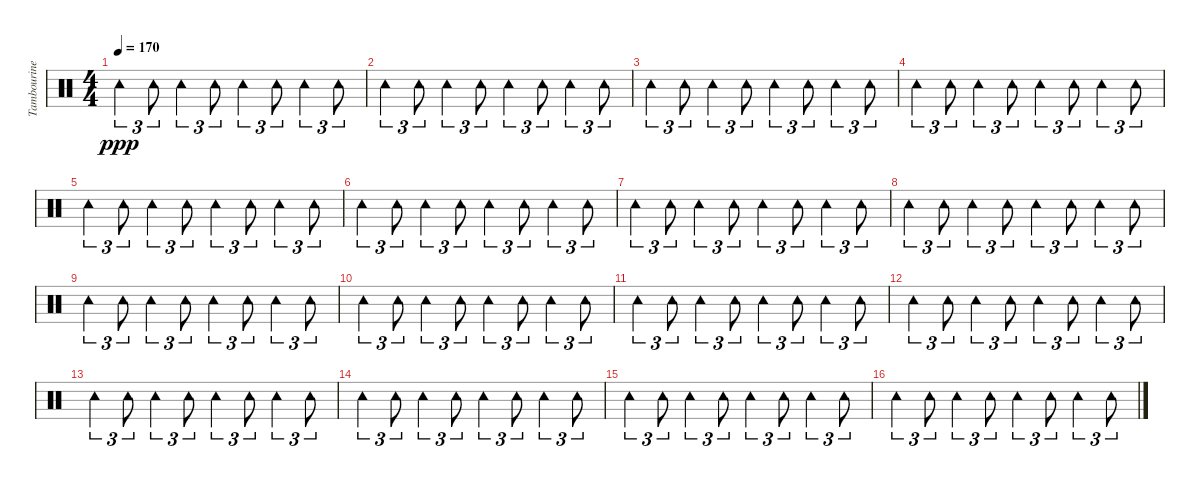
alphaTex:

\track ("Tambourine" "Tambourine") {instrument percussion}
\staff {score}
\articulation defaults
\ts (4 4)
\tempo 170
\clef neutral
\ks c "Tambourine (hit)".4{tu (3 2) dy ppp} "Tambourine (hit)".8{tu (3 2)} "Tambourine (hit)".4{tu (3 2)} "Tambourine (hit)".8{tu (3 2)} "Tambourine (hit)".4{tu (3 2)} "Tambourine (hit)".8{tu (3 2)} "Tambourine (hit)".4{tu (3 2)} "Tambourine (hit)".8{tu (3 2)}
|
"Tambourine (hit)".4{tu (3 2)} "Tambourine (hit)".8{tu (3 2)} "Tambourine (hit)".4{tu (3 2)} "Tambourine (hit)".8{tu (3 2)} "Tambourine (hit)".4{tu (3 2)} "Tambourine (hit)".8{tu (3 2)} "Tambourine (hit)".4{tu (3 2)} "Tambourine (hit)".8{tu (3 2)} |
"Tambourine (hit)".4{tu (3 2)} "Tambourine (hit)".8{tu (3 2)} "Tambourine (hit)".4{tu (3 2)} "Tambourine (hit)".8{tu (3 2)} "Tambourine (hit)".4{tu (3 2)} "Tambourine (hit)".8{tu (3 2)} "Tambourine (hit)".4{tu (3 2)} "Tambourine (hit)".8{tu (3 2)} |
"Tambourine (hit)".4{tu (3 2)} "Tambourine (hit)".8{tu (3 2)} "Tambourine (hit)".4{tu (3 2)} "Tambourine (hit)".8{tu (3 2)} "Tambourine (hit)".4{tu (3 2)} "Tambourine (hit)".8{tu (3 2)} "Tambourine (hit)".4{tu (3 2)} "Tambourine (hit)".8{tu (3 2)} |
"Tambourine (hit)".4{tu (3 2)} "Tambourine (hit)".8{tu (3 2)} "Tambourine (hit)".4{tu (3 2)} "Tambourine (hit)".8{tu (3 2)} "Tambourine (hit)".4{tu (3 2)} "Tambourine (hit)".8{tu (3 2)} "Tambourine (hit)".4{tu (3 2)} "Tambourine (hit)".8{tu (3 2)} |
"Tambourine (hit)".4{tu (3 2)} "Tambourine (hit)".8{tu (3 2)} "Tambourine (hit)".4{tu (3 2)} "Tambourine (hit)".8{tu (3 2)} "Tambourine (hit)".4{tu (3 2)} "Tambourine (hit)".8{tu (3 2)} "Tambourine (hit)".4{tu (3 2)} "Tambourine (hit)".8{tu (3 2)} |
"Tambourine (hit)".4{tu (3 2)} "Tambourine (hit)".8{tu (3 2)} "Tambourine (hit)".4{tu (3 2)} "Tambourine (hit)".8{tu (3 2)} "Tambourine (hit)".4{tu (3 2)} "Tambourine (hit)".8{tu (3 2)} "Tambourine (hit)".4{tu (3 2)} "Tambourine (hit)".8{tu (3 2)} |
"Tambourine (hit)".4{tu (3 2)} "Tambourine (hit)".8{tu (3 2)} "Tambourine (hit)".4{tu (3 2)} "Tambourine (hit)".8{tu (3 2)} "Tambourine (hit)".4{tu (3 2)} "Tambourine (hit)".8{tu (3 2)} "Tambourine (hit)".4{tu (3 2)} "Tambourine (hit)".8{tu (3 2)} |
"Tambourine (hit)".4{tu (3 2)} "Tambourine (hit)".8{tu (3 2)} "Tambourine (hit)".4{tu (3 2)} "Tambourine (hit)".8{tu (3 2)} "Tambourine (hit)".4{tu (3 2)} "Tambourine (hit)".8{tu (3 2)} "Tambourine (hit)".4{tu (3 2)} "Tambourine (hit)".8{tu (3 2)} |
"Tambourine (hit)".4{tu (3 2)} "Tambourine (hit)".8{tu (3 2)} "Tambourine (hit)".4{tu (3 2)} "Tambourine (hit)".8{tu (3 2)} "Tambourine (hit)".4{tu (3 2)} "Tambourine (hit)".8{tu (3 2)} "Tambourine (hit)".4{tu (3 2)} "Tambourine (hit)".8{tu (3 2)} |
"Tambourine (hit)".4{tu (3 2)} "Tambourine (hit)".8{tu (3 2)} "Tambourine (hit)".4{tu (3 2)} "Tambourine (hit)".8{tu (3 2)} "Tambourine (hit)".4{tu (3 2)} "Tambourine (hit)".8{tu (3 2)} "Tambourine (hit)".4{tu (3 2)} "Tambourine (hit)".8{tu (3 2)} |
"Tambourine (hit)".4{tu (3 2)} "Tambourine (hit)".8{tu (3 2)} "Tambourine (hit)".4{tu (3 2)} "Tambourine (hit)".8{tu (3 2)} "Tambourine (hit)".4{tu (3 2)} "Tambourine (hit)".8{tu (3 2)} "Tambourine (hit)".4{tu (3 2)} "Tambourine (hit)".8{tu (3 2)} |
"Tambourine (hit)".4{tu (3 2)} "Tambourine (hit)".8{tu (3 2)} "Tambourine (hit)".4{tu (3 2)} "Tambourine (hit)".8{tu (3 2)} "Tambourine (hit)".4{tu (3 2)} "Tambourine (hit)".8{tu (3 2)} "Tambourine (hit)".4{tu (3 2)} "Tambourine (hit)".8{tu (3 2)} |
"Tambourine (hit)".4{tu (3 2)} "Tambourine (hit)".8{tu (3 2)} "Tambourine (hit)".4{tu (3 2)} "Tambourine (hit)".8{tu (3 2)} "Tambourine (hit)".4{tu (3 2)} "Tambourine (hit)".8{tu (3 2)} "Tambourine (hit)".4{tu (3 2)} "Tambourine (hit)".8{tu (3 2)} |
"Tambourine (hit)".4{tu (3 2)} "Tambourine (hit)".8{tu (3 2)} "Tambourine (hit)".4{tu (3 2)} "Tambourine (hit)".8{tu (3 2)} "Tambourine (hit)".4{tu (3 2)} "Tambourine (hit)".8{tu (3 2)} "Tambourine (hit)".4{tu (3 2)} "Tambourine (hit)".8{tu (3 2)} |
"Tambourine (hit)".4{tu (3 2)} "Tambourine (hit)".8{tu (3 2)} "Tambourine (hit)".4{tu (3 2)} "Tambourine (hit)".8{tu (3 2)} "Tambourine (hit)".4{tu (3 2)} "Tambourine (hit)".8{tu (3 2)} "Tambourine (hit)".4{tu (3 2)} "Tambourine (hit)".8{tu (3 2)}
